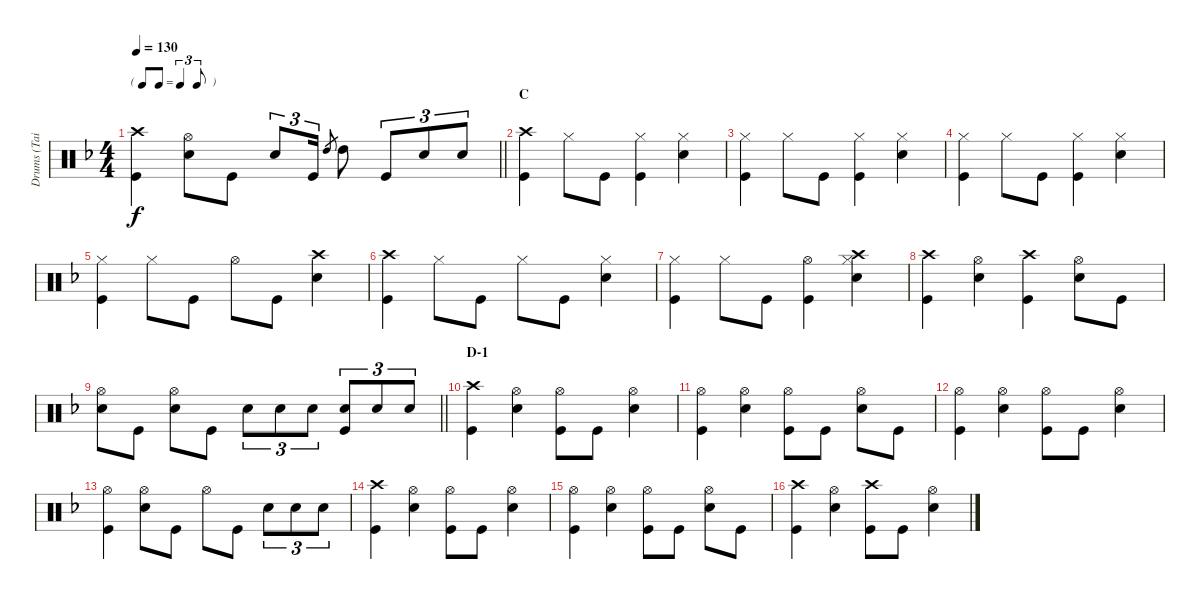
\track ("Drums (Tainaka Ritsu)" "Drums (Tai") {instrument percussion}
\staff {score}
\articulation defaults
\ts (4 4)
\tf triplet8th
\tempo 130
\clef neutral
\barLineRight lightlight
\ks f
("Crash high (hit)" "Kick (hit)").4{dy f} ("Hi-Hat (open)" "Snare (hit) 2").8 "Kick (hit)".8 "Snare (hit) 2".8{tu (3 2)} "Kick (hit)".16{tu (3 2)} "High Tom (hit)".8{gr} "High Tom (hit)".8 "Kick (hit)".8{tu (3 2)} "Snare (hit) 2".8{tu (3 2)} "Snare (hit) 2".8{tu (3 2)} |
\section ("" "C")
("Crash high (hit)" "Kick (hit)").4 "Hi-Hat (closed)".8 "Kick (hit)".8 ("Hi-Hat (closed)" "Kick (hit)").4 ("Hi-Hat (closed)" "Snare (hit) 2").4 |
("Hi-Hat (closed)" "Kick (hit)").4 "Hi-Hat (closed)".8 "Kick (hit)".8 ("Hi-Hat (closed)" "Kick (hit)").4 ("Hi-Hat (closed)" "Snare (hit) 2").4 |
("Hi-Hat (closed)" "Kick (hit)").4 "Hi-Hat (closed)".8 "Kick (hit)".8 ("Hi-Hat (closed)" "Kick (hit)").4 ("Hi-Hat (closed)" "Snare (hit) 2").4 |
("Hi-Hat (closed)" "Kick (hit)").4 "Hi-Hat (closed)".8 "Kick (hit)".8 "Hi-Hat (open)".8 "Kick (hit)".8 ("Crash high (hit)" "Snare (hit) 2").4 |
("Crash high (hit)" "Kick (hit)").4 "Hi-Hat (closed)".8 "Kick (hit)".8 "Hi-Hat (closed)".8 "Kick (hit)".8 ("Hi-Hat (closed)" "Snare (hit) 2").4 |
("Hi-Hat (closed)" "Kick (hit)").4 "Hi-Hat (closed)".8 "Kick (hit)".8 ("Hi-Hat (open)" "Kick (hit)").4 ("Hi-Hat (closed)" "Crash high (hit)" "Snare (hit) 2").4 |
("Crash high (hit)" "Kick (hit)").4 ("Hi-Hat (open)" "Snare (hit) 2").4 ("Crash high (hit)" "Kick (hit)").4 ("Hi-Hat (open)" "Snare (hit) 2").8 "Kick (hit)".8 |
\barLineRight lightlight
("Hi-Hat (open)" "Snare (hit) 2").8 "Kick (hit)".8 ("Hi-Hat (open)" "Snare (hit) 2").8 "Kick (hit)".8 "Snare (hit) 2".8{tu (3 2)} "Snare (hit) 2".8{tu (3 2)} "Snare (hit) 2".8{tu (3 2)} ("Snare (hit) 2" "Kick (hit)").8{tu (3 2)} "Snare (hit) 2".8{tu (3 2)} "Snare (hit) 2".8{tu (3 2)} |
\section ("" "D-1")
("Crash high (hit)" "Kick (hit)").4 ("Hi-Hat (open)" "Snare (hit) 2").4 ("Hi-Hat (open)" "Kick (hit)").8 "Kick (hit)".8 ("Hi-Hat (open)" "Snare (hit) 2").4 |
("Hi-Hat (open)" "Kick (hit)").4 ("Hi-Hat (open)" "Snare (hit) 2").4 ("Hi-Hat (open)" "Kick (hit)").8 "Kick (hit)".8 ("Hi-Hat (open)" "Snare (hit) 2").8 "Kick (hit)".8 |
("Hi-Hat (open)" "Kick (hit)").4 ("Hi-Hat (open)" "Snare (hit) 2").4 ("Hi-Hat (open)" "Kick (hit)").8 "Kick (hit)".8 ("Hi-Hat (open)" "Snare (hit) 2").4 |
("Hi-Hat (open)" "Kick (hit)").4 ("Hi-Hat (open)" "Snare (hit) 2").8 "Kick (hit)".8 "Hi-Hat (open)".8 "Kick (hit)".8 "Snare (hit) 2".8{tu (3 2)} "Snare (hit) 2".8{tu (3 2)} "Snare (hit) 2".8{tu (3 2)} |
("Crash high (hit)" "Kick (hit)").4 ("Hi-Hat (open)" "Snare (hit) 2").4 ("Hi-Hat (open)" "Kick (hit)").8 "Kick (hit)".8 ("Hi-Hat (open)" "Snare (hit) 2").4 |
("Hi-Hat (open)" "Kick (hit)").4 ("Hi-Hat (open)" "Snare (hit) 2").4 ("Hi-Hat (open)" "Kick (hit)").8 "Kick (hit)".8 ("Hi-Hat (open)" "Snare (hit) 2").8 "Kick (hit)".8 |
("Crash high (hit)" "Kick (hit)").4 ("Hi-Hat (open)" "Snare (hit) 2").4 ("Crash high (hit)" "Kick (hit)").8 "Kick (hit)".8 ("Hi-Hat (open)" "Snare (hit) 2").4
